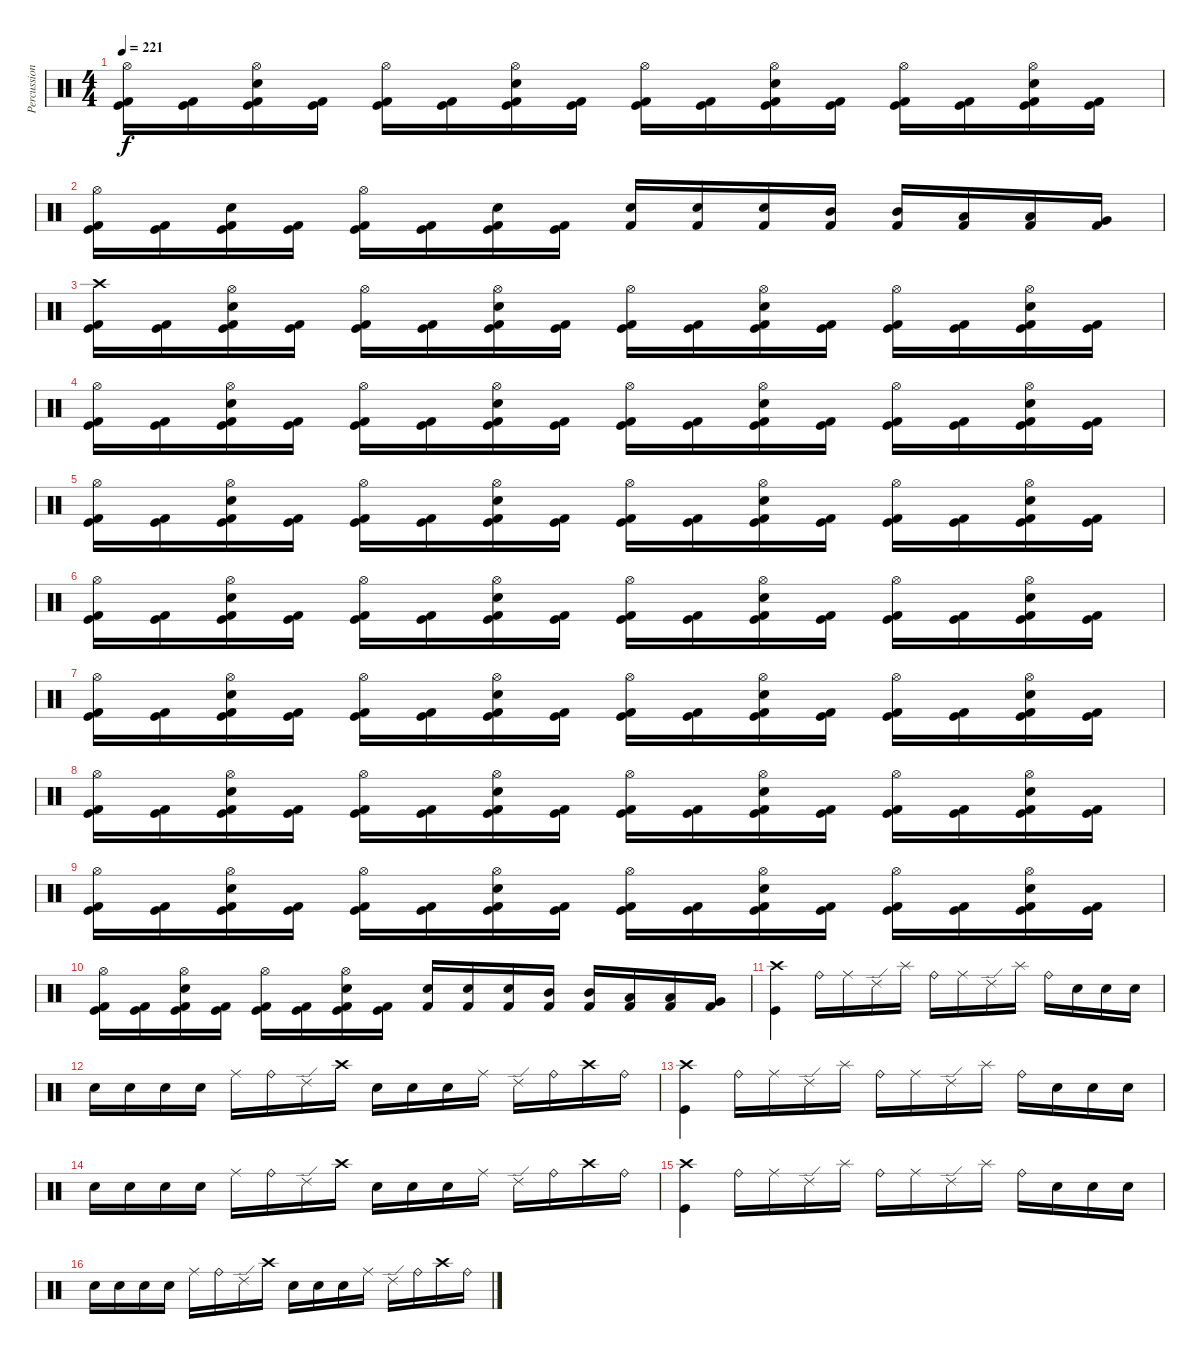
\track ("Percussion" "Percussion") {instrument percussion}
\staff {score}
\articulation defaults
\ts (4 4)
\tempo 221
\clef neutral
\ks c
("Hi-Hat (open)" "Kick (hit)" "Kick (hit) 2").16{dy f} ("Kick (hit)" "Kick (hit) 2").16 ("Hi-Hat (open)" "Electric Snare (hit)" "Kick (hit)" "Kick (hit) 2").16 ("Kick (hit)" "Kick (hit) 2").16 ("Hi-Hat (open)" "Kick (hit)" "Kick (hit) 2").16 ("Kick (hit)" "Kick (hit) 2").16 ("Hi-Hat (open)" "Electric Snare (hit)" "Kick (hit)" "Kick (hit) 2").16 ("Kick (hit)" "Kick (hit) 2").16 ("Hi-Hat (open)" "Kick (hit)" "Kick (hit) 2").16 ("Kick (hit)" "Kick (hit) 2").16 ("Hi-Hat (open)" "Electric Snare (hit)" "Kick (hit)" "Kick (hit) 2").16 ("Kick (hit)" "Kick (hit) 2").16 ("Hi-Hat (open)" "Kick (hit)" "Kick (hit) 2").16 ("Kick (hit)" "Kick (hit) 2").16 ("Hi-Hat (open)" "Electric Snare (hit)" "Kick (hit)" "Kick (hit) 2").16 ("Kick (hit)" "Kick (hit) 2").16 |
("Hi-Hat (open)" "Kick (hit)" "Kick (hit) 2").16 ("Kick (hit)" "Kick (hit) 2").16 ("Electric Snare (hit)" "Kick (hit)" "Kick (hit) 2").16 ("Kick (hit)" "Kick (hit) 2").16 ("Hi-Hat (open)" "Kick (hit)" "Kick (hit) 2").16 ("Kick (hit)" "Kick (hit) 2").16 ("Electric Snare (hit)" "Kick (hit)" "Kick (hit) 2").16 ("Kick (hit)" "Kick (hit) 2").16 ("Electric Snare (hit)" "Kick (hit) 2").16 ("Electric Snare (hit)" "Kick (hit) 2").16 ("Electric Snare (hit)" "Kick (hit) 2").16 ("Mid Tom (hit)" "Kick (hit) 2").16 ("Mid Tom (hit)" "Kick (hit) 2").16 ("Low Tom (hit)" "Kick (hit) 2").16 ("Low Tom (hit)" "Kick (hit) 2").16 ("Very Low Tom (hit)" "Kick (hit) 2").16 |
("Crash high (hit)" "Kick (hit)" "Kick (hit) 2").16 ("Kick (hit)" "Kick (hit) 2").16 ("Hi-Hat (open)" "Electric Snare (hit)" "Kick (hit)" "Kick (hit) 2").16 ("Kick (hit)" "Kick (hit) 2").16 ("Hi-Hat (open)" "Kick (hit)" "Kick (hit) 2").16 ("Kick (hit)" "Kick (hit) 2").16 ("Hi-Hat (open)" "Electric Snare (hit)" "Kick (hit)" "Kick (hit) 2").16 ("Kick (hit)" "Kick (hit) 2").16 ("Hi-Hat (open)" "Kick (hit)" "Kick (hit) 2").16 ("Kick (hit)" "Kick (hit) 2").16 ("Hi-Hat (open)" "Electric Snare (hit)" "Kick (hit)" "Kick (hit) 2").16 ("Kick (hit)" "Kick (hit) 2").16 ("Hi-Hat (open)" "Kick (hit)" "Kick (hit) 2").16 ("Kick (hit)" "Kick (hit) 2").16 ("Hi-Hat (open)" "Electric Snare (hit)" "Kick (hit)" "Kick (hit) 2").16 ("Kick (hit)" "Kick (hit) 2").16 |
("Hi-Hat (open)" "Kick (hit)" "Kick (hit) 2").16 ("Kick (hit)" "Kick (hit) 2").16 ("Hi-Hat (open)" "Electric Snare (hit)" "Kick (hit)" "Kick (hit) 2").16 ("Kick (hit)" "Kick (hit) 2").16 ("Hi-Hat (open)" "Kick (hit)" "Kick (hit) 2").16 ("Kick (hit)" "Kick (hit) 2").16 ("Hi-Hat (open)" "Electric Snare (hit)" "Kick (hit)" "Kick (hit) 2").16 ("Kick (hit)" "Kick (hit) 2").16 ("Hi-Hat (open)" "Kick (hit)" "Kick (hit) 2").16 ("Kick (hit)" "Kick (hit) 2").16 ("Hi-Hat (open)" "Electric Snare (hit)" "Kick (hit)" "Kick (hit) 2").16 ("Kick (hit)" "Kick (hit) 2").16 ("Hi-Hat (open)" "Kick (hit)" "Kick (hit) 2").16 ("Kick (hit)" "Kick (hit) 2").16 ("Hi-Hat (open)" "Electric Snare (hit)" "Kick (hit)" "Kick (hit) 2").16 ("Kick (hit)" "Kick (hit) 2").16 |
("Hi-Hat (open)" "Kick (hit)" "Kick (hit) 2").16 ("Kick (hit)" "Kick (hit) 2").16 ("Hi-Hat (open)" "Electric Snare (hit)" "Kick (hit)" "Kick (hit) 2").16 ("Kick (hit)" "Kick (hit) 2").16 ("Hi-Hat (open)" "Kick (hit)" "Kick (hit) 2").16 ("Kick (hit)" "Kick (hit) 2").16 ("Hi-Hat (open)" "Electric Snare (hit)" "Kick (hit)" "Kick (hit) 2").16 ("Kick (hit)" "Kick (hit) 2").16 ("Hi-Hat (open)" "Kick (hit)" "Kick (hit) 2").16 ("Kick (hit)" "Kick (hit) 2").16 ("Hi-Hat (open)" "Electric Snare (hit)" "Kick (hit)" "Kick (hit) 2").16 ("Kick (hit)" "Kick (hit) 2").16 ("Hi-Hat (open)" "Kick (hit)" "Kick (hit) 2").16 ("Kick (hit)" "Kick (hit) 2").16 ("Hi-Hat (open)" "Electric Snare (hit)" "Kick (hit)" "Kick (hit) 2").16 ("Kick (hit)" "Kick (hit) 2").16 |
("Hi-Hat (open)" "Kick (hit)" "Kick (hit) 2").16 ("Kick (hit)" "Kick (hit) 2").16 ("Hi-Hat (open)" "Electric Snare (hit)" "Kick (hit)" "Kick (hit) 2").16 ("Kick (hit)" "Kick (hit) 2").16 ("Hi-Hat (open)" "Kick (hit)" "Kick (hit) 2").16 ("Kick (hit)" "Kick (hit) 2").16 ("Hi-Hat (open)" "Electric Snare (hit)" "Kick (hit)" "Kick (hit) 2").16 ("Kick (hit)" "Kick (hit) 2").16 ("Hi-Hat (open)" "Kick (hit)" "Kick (hit) 2").16 ("Kick (hit)" "Kick (hit) 2").16 ("Hi-Hat (open)" "Electric Snare (hit)" "Kick (hit)" "Kick (hit) 2").16 ("Kick (hit)" "Kick (hit) 2").16 ("Hi-Hat (open)" "Kick (hit)" "Kick (hit) 2").16 ("Kick (hit)" "Kick (hit) 2").16 ("Hi-Hat (open)" "Electric Snare (hit)" "Kick (hit)" "Kick (hit) 2").16 ("Kick (hit)" "Kick (hit) 2").16 |
("Hi-Hat (open)" "Kick (hit)" "Kick (hit) 2").16 ("Kick (hit)" "Kick (hit) 2").16 ("Hi-Hat (open)" "Electric Snare (hit)" "Kick (hit)" "Kick (hit) 2").16 ("Kick (hit)" "Kick (hit) 2").16 ("Hi-Hat (open)" "Kick (hit)" "Kick (hit) 2").16 ("Kick (hit)" "Kick (hit) 2").16 ("Hi-Hat (open)" "Electric Snare (hit)" "Kick (hit)" "Kick (hit) 2").16 ("Kick (hit)" "Kick (hit) 2").16 ("Hi-Hat (open)" "Kick (hit)" "Kick (hit) 2").16 ("Kick (hit)" "Kick (hit) 2").16 ("Hi-Hat (open)" "Electric Snare (hit)" "Kick (hit)" "Kick (hit) 2").16 ("Kick (hit)" "Kick (hit) 2").16 ("Hi-Hat (open)" "Kick (hit)" "Kick (hit) 2").16 ("Kick (hit)" "Kick (hit) 2").16 ("Hi-Hat (open)" "Electric Snare (hit)" "Kick (hit)" "Kick (hit) 2").16 ("Kick (hit)" "Kick (hit) 2").16 |
("Hi-Hat (open)" "Kick (hit)" "Kick (hit) 2").16 ("Kick (hit)" "Kick (hit) 2").16 ("Hi-Hat (open)" "Electric Snare (hit)" "Kick (hit)" "Kick (hit) 2").16 ("Kick (hit)" "Kick (hit) 2").16 ("Hi-Hat (open)" "Kick (hit)" "Kick (hit) 2").16 ("Kick (hit)" "Kick (hit) 2").16 ("Hi-Hat (open)" "Electric Snare (hit)" "Kick (hit)" "Kick (hit) 2").16 ("Kick (hit)" "Kick (hit) 2").16 ("Hi-Hat (open)" "Kick (hit)" "Kick (hit) 2").16 ("Kick (hit)" "Kick (hit) 2").16 ("Hi-Hat (open)" "Electric Snare (hit)" "Kick (hit)" "Kick (hit) 2").16 ("Kick (hit)" "Kick (hit) 2").16 ("Hi-Hat (open)" "Kick (hit)" "Kick (hit) 2").16 ("Kick (hit)" "Kick (hit) 2").16 ("Hi-Hat (open)" "Electric Snare (hit)" "Kick (hit)" "Kick (hit) 2").16 ("Kick (hit)" "Kick (hit) 2").16 |
("Hi-Hat (open)" "Kick (hit)" "Kick (hit) 2").16 ("Kick (hit)" "Kick (hit) 2").16 ("Hi-Hat (open)" "Electric Snare (hit)" "Kick (hit)" "Kick (hit) 2").16 ("Kick (hit)" "Kick (hit) 2").16 ("Hi-Hat (open)" "Kick (hit)" "Kick (hit) 2").16 ("Kick (hit)" "Kick (hit) 2").16 ("Hi-Hat (open)" "Electric Snare (hit)" "Kick (hit)" "Kick (hit) 2").16 ("Kick (hit)" "Kick (hit) 2").16 ("Hi-Hat (open)" "Kick (hit)" "Kick (hit) 2").16 ("Kick (hit)" "Kick (hit) 2").16 ("Hi-Hat (open)" "Electric Snare (hit)" "Kick (hit)" "Kick (hit) 2").16 ("Kick (hit)" "Kick (hit) 2").16 ("Hi-Hat (open)" "Kick (hit)" "Kick (hit) 2").16 ("Kick (hit)" "Kick (hit) 2").16 ("Hi-Hat (open)" "Electric Snare (hit)" "Kick (hit)" "Kick (hit) 2").16 ("Kick (hit)" "Kick (hit) 2").16 |
("Hi-Hat (open)" "Kick (hit)" "Kick (hit) 2").16 ("Kick (hit)" "Kick (hit) 2").16 ("Hi-Hat (open)" "Electric Snare (hit)" "Kick (hit)" "Kick (hit) 2").16 ("Kick (hit)" "Kick (hit) 2").16 ("Hi-Hat (open)" "Kick (hit)" "Kick (hit) 2").16 ("Kick (hit)" "Kick (hit) 2").16 ("Hi-Hat (open)" "Electric Snare (hit)" "Kick (hit)" "Kick (hit) 2").16 ("Kick (hit)" "Kick (hit) 2").16 ("Electric Snare (hit)" "Kick (hit) 2").16 ("Electric Snare (hit)" "Kick (hit) 2").16 ("Electric Snare (hit)" "Kick (hit) 2").16 ("Mid Tom (hit)" "Kick (hit) 2").16 ("Mid Tom (hit)" "Kick (hit) 2").16 ("Low Tom (hit)" "Kick (hit) 2").16 ("Low Tom (hit)" "Kick (hit) 2").16 ("Very Low Tom (hit)" "Kick (hit) 2").16 |
("Crash high (hit)" "Kick (hit)").4 "Ride (bell)".16 "Ride (middle)".16 "Ride (edge) 2".16 "Splash (hit)".16 "Ride (bell)".16 "Ride (middle)".16 "Ride (edge) 2".16 "Splash (hit)".16 "Ride (bell)".16 "Electric Snare (hit)".16 "Electric Snare (hit)".16 "Electric Snare (hit)".16 |
"Electric Snare (hit)".16 "Electric Snare (hit)".16 "Electric Snare (hit)".16 "Electric Snare (hit)".16 "Ride (middle)".16 "Ride (bell)".16 "Ride (edge) 2".16 "Crash high (hit)".16 "Electric Snare (hit)".16 "Electric Snare (hit)".16 "Electric Snare (hit)".16 "Ride (middle)".16 "Ride (edge) 2".16 "Ride (bell)".16 "Crash high (hit)".16 "Ride (bell)".16 |
("Crash high (hit)" "Kick (hit)").4 "Ride (bell)".16 "Ride (middle)".16 "Ride (edge) 2".16 "Splash (hit)".16 "Ride (bell)".16 "Ride (middle)".16 "Ride (edge) 2".16 "Splash (hit)".16 "Ride (bell)".16 "Electric Snare (hit)".16 "Electric Snare (hit)".16 "Electric Snare (hit)".16 |
"Electric Snare (hit)".16 "Electric Snare (hit)".16 "Electric Snare (hit)".16 "Electric Snare (hit)".16 "Ride (middle)".16 "Ride (bell)".16 "Ride (edge) 2".16 "Crash high (hit)".16 "Electric Snare (hit)".16 "Electric Snare (hit)".16 "Electric Snare (hit)".16 "Ride (middle)".16 "Ride (edge) 2".16 "Ride (bell)".16 "Crash high (hit)".16 "Ride (bell)".16 |
("Crash high (hit)" "Kick (hit)").4 "Ride (bell)".16 "Ride (middle)".16 "Ride (edge) 2".16 "Splash (hit)".16 "Ride (bell)".16 "Ride (middle)".16 "Ride (edge) 2".16 "Splash (hit)".16 "Ride (bell)".16 "Electric Snare (hit)".16 "Electric Snare (hit)".16 "Electric Snare (hit)".16 |
"Electric Snare (hit)".16 "Electric Snare (hit)".16 "Electric Snare (hit)".16 "Electric Snare (hit)".16 "Ride (middle)".16 "Ride (bell)".16 "Ride (edge) 2".16 "Crash high (hit)".16 "Electric Snare (hit)".16 "Electric Snare (hit)".16 "Electric Snare (hit)".16 "Ride (middle)".16 "Ride (edge) 2".16 "Ride (bell)".16 "Crash high (hit)".16 "Ride (bell)".16
